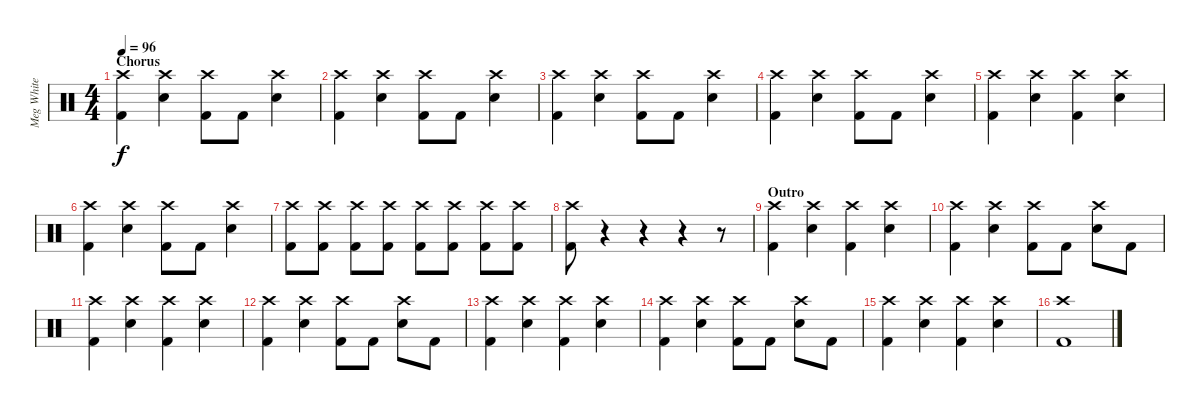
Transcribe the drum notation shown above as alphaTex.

\track ("Meg White - Drums" "Meg White ") {instrument percussion}
\staff {score}
\articulation defaults
\ts (4 4)
\section ("" "Chorus")
\tempo 96
\clef neutral
\ks c
("Crash high (hit)" "Kick (hit) 2").4{dy f} ("Crash high (hit)" "Snare (hit) 2").4 ("Crash high (hit)" "Kick (hit) 2").8 "Kick (hit) 2".8 ("Crash high (hit)" "Snare (hit) 2").4 |
("Crash high (hit)" "Kick (hit) 2").4 ("Crash high (hit)" "Snare (hit) 2").4 ("Crash high (hit)" "Kick (hit) 2").8 "Kick (hit) 2".8 ("Crash high (hit)" "Snare (hit) 2").4 |
("Crash high (hit)" "Kick (hit) 2").4 ("Crash high (hit)" "Snare (hit) 2").4 ("Crash high (hit)" "Kick (hit) 2").8 "Kick (hit) 2".8 ("Crash high (hit)" "Snare (hit) 2").4 |
("Crash high (hit)" "Kick (hit) 2").4 ("Crash high (hit)" "Snare (hit) 2").4 ("Crash high (hit)" "Kick (hit) 2").8 "Kick (hit) 2".8 ("Crash high (hit)" "Snare (hit) 2").4 |
("Crash high (hit)" "Kick (hit) 2").4 ("Crash high (hit)" "Snare (hit) 2").4 ("Crash high (hit)" "Kick (hit) 2").4 ("Crash high (hit)" "Snare (hit) 2").4 |
("Crash high (hit)" "Kick (hit) 2").4 ("Crash high (hit)" "Snare (hit) 2").4 ("Crash high (hit)" "Kick (hit) 2").8 "Kick (hit) 2".8 ("Crash high (hit)" "Snare (hit) 2").4 |
("Crash high (hit)" "Kick (hit) 2").8 ("Crash high (hit)" "Kick (hit) 2").8 ("Crash high (hit)" "Kick (hit) 2").8 ("Crash high (hit)" "Kick (hit) 2").8 ("Crash high (hit)" "Kick (hit) 2").8 ("Crash high (hit)" "Kick (hit) 2").8 ("Crash high (hit)" "Kick (hit) 2").8 ("Crash high (hit)" "Kick (hit) 2").8 |
("Crash high (hit)" "Kick (hit) 2").8 r.4 r.4 r.4 r.8 |
\section ("" "Outro")
("Crash high (hit)" "Kick (hit) 2").4 ("Crash high (hit)" "Snare (hit) 2").4 ("Crash high (hit)" "Kick (hit) 2").4 ("Crash high (hit)" "Snare (hit) 2").4 |
("Crash high (hit)" "Kick (hit) 2").4 ("Crash high (hit)" "Snare (hit) 2").4 ("Crash high (hit)" "Kick (hit) 2").8 "Kick (hit) 2".8 ("Crash high (hit)" "Snare (hit) 2").8 "Kick (hit) 2".8 |
("Crash high (hit)" "Kick (hit) 2").4 ("Crash high (hit)" "Snare (hit) 2").4 ("Crash high (hit)" "Kick (hit) 2").4 ("Crash high (hit)" "Snare (hit) 2").4 |
("Crash high (hit)" "Kick (hit) 2").4 ("Crash high (hit)" "Snare (hit) 2").4 ("Crash high (hit)" "Kick (hit) 2").8 "Kick (hit) 2".8 ("Crash high (hit)" "Snare (hit) 2").8 "Kick (hit) 2".8 |
("Crash high (hit)" "Kick (hit) 2").4 ("Crash high (hit)" "Snare (hit) 2").4 ("Crash high (hit)" "Kick (hit) 2").4 ("Crash high (hit)" "Snare (hit) 2").4 |
("Crash high (hit)" "Kick (hit) 2").4 ("Crash high (hit)" "Snare (hit) 2").4 ("Crash high (hit)" "Kick (hit) 2").8 "Kick (hit) 2".8 ("Crash high (hit)" "Snare (hit) 2").8 "Kick (hit) 2".8 |
("Crash high (hit)" "Kick (hit) 2").4 ("Crash high (hit)" "Snare (hit) 2").4 ("Crash high (hit)" "Kick (hit) 2").4 ("Crash high (hit)" "Snare (hit) 2").4 |
("Crash high (hit)" "Kick (hit) 2").1
